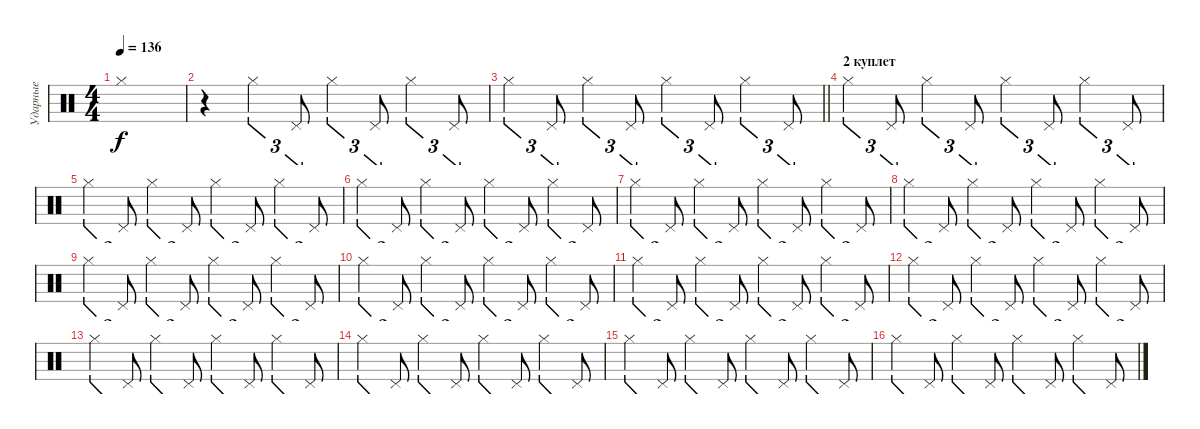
\track ("Ударные" "Ударные") {instrument percussion}
\staff {score}
\articulation defaults
\ts (4 4)
\tempo 136
\clef neutral
\ks c "Hi-Hat (closed)".1{dy f}
|
r.4 "Hi-Hat (closed)".4{tu (3 2)} "Pedal Hi-Hat (hit)".8{tu (3 2)} "Hi-Hat (closed)".4{tu (3 2)} "Pedal Hi-Hat (hit)".8{tu (3 2)} "Hi-Hat (closed)".4{tu (3 2)} "Pedal Hi-Hat (hit)".8{tu (3 2)} |
\barLineRight lightlight "Hi-Hat (closed)".4{tu (3 2)} "Pedal Hi-Hat (hit)".8{tu (3 2)} "Hi-Hat (closed)".4{tu (3 2)} "Pedal Hi-Hat (hit)".8{tu (3 2)} "Hi-Hat (closed)".4{tu (3 2)} "Pedal Hi-Hat (hit)".8{tu (3 2)} "Hi-Hat (closed)".4{tu (3 2)} "Pedal Hi-Hat (hit)".8{tu (3 2)}
|
\section ("" "2 куплет")
"Hi-Hat (closed)".4{tu (3 2)} "Pedal Hi-Hat (hit)".8{tu (3 2)} "Hi-Hat (closed)".4{tu (3 2)} "Pedal Hi-Hat (hit)".8{tu (3 2)} "Hi-Hat (closed)".4{tu (3 2)} "Pedal Hi-Hat (hit)".8{tu (3 2)} "Hi-Hat (closed)".4{tu (3 2)} "Pedal Hi-Hat (hit)".8{tu (3 2)} |
"Hi-Hat (closed)".4{tu (3 2)} "Pedal Hi-Hat (hit)".8{tu (3 2)} "Hi-Hat (closed)".4{tu (3 2)} "Pedal Hi-Hat (hit)".8{tu (3 2)} "Hi-Hat (closed)".4{tu (3 2)} "Pedal Hi-Hat (hit)".8{tu (3 2)} "Hi-Hat (closed)".4{tu (3 2)} "Pedal Hi-Hat (hit)".8{tu (3 2)} |
"Hi-Hat (closed)".4{tu (3 2)} "Pedal Hi-Hat (hit)".8{tu (3 2)} "Hi-Hat (closed)".4{tu (3 2)} "Pedal Hi-Hat (hit)".8{tu (3 2)} "Hi-Hat (closed)".4{tu (3 2)} "Pedal Hi-Hat (hit)".8{tu (3 2)} "Hi-Hat (closed)".4{tu (3 2)} "Pedal Hi-Hat (hit)".8{tu (3 2)} |
"Hi-Hat (closed)".4{tu (3 2)} "Pedal Hi-Hat (hit)".8{tu (3 2)} "Hi-Hat (closed)".4{tu (3 2)} "Pedal Hi-Hat (hit)".8{tu (3 2)} "Hi-Hat (closed)".4{tu (3 2)} "Pedal Hi-Hat (hit)".8{tu (3 2)} "Hi-Hat (closed)".4{tu (3 2)} "Pedal Hi-Hat (hit)".8{tu (3 2)} |
"Hi-Hat (closed)".4{tu (3 2)} "Pedal Hi-Hat (hit)".8{tu (3 2)} "Hi-Hat (closed)".4{tu (3 2)} "Pedal Hi-Hat (hit)".8{tu (3 2)} "Hi-Hat (closed)".4{tu (3 2)} "Pedal Hi-Hat (hit)".8{tu (3 2)} "Hi-Hat (closed)".4{tu (3 2)} "Pedal Hi-Hat (hit)".8{tu (3 2)} |
"Hi-Hat (closed)".4{tu (3 2)} "Pedal Hi-Hat (hit)".8{tu (3 2)} "Hi-Hat (closed)".4{tu (3 2)} "Pedal Hi-Hat (hit)".8{tu (3 2)} "Hi-Hat (closed)".4{tu (3 2)} "Pedal Hi-Hat (hit)".8{tu (3 2)} "Hi-Hat (closed)".4{tu (3 2)} "Pedal Hi-Hat (hit)".8{tu (3 2)} |
"Hi-Hat (closed)".4{tu (3 2)} "Pedal Hi-Hat (hit)".8{tu (3 2)} "Hi-Hat (closed)".4{tu (3 2)} "Pedal Hi-Hat (hit)".8{tu (3 2)} "Hi-Hat (closed)".4{tu (3 2)} "Pedal Hi-Hat (hit)".8{tu (3 2)} "Hi-Hat (closed)".4{tu (3 2)} "Pedal Hi-Hat (hit)".8{tu (3 2)} |
"Hi-Hat (closed)".4{tu (3 2)} "Pedal Hi-Hat (hit)".8{tu (3 2)} "Hi-Hat (closed)".4{tu (3 2)} "Pedal Hi-Hat (hit)".8{tu (3 2)} "Hi-Hat (closed)".4{tu (3 2)} "Pedal Hi-Hat (hit)".8{tu (3 2)} "Hi-Hat (closed)".4{tu (3 2)} "Pedal Hi-Hat (hit)".8{tu (3 2)} |
"Hi-Hat (closed)".4{tu (3 2)} "Pedal Hi-Hat (hit)".8{tu (3 2)} "Hi-Hat (closed)".4{tu (3 2)} "Pedal Hi-Hat (hit)".8{tu (3 2)} "Hi-Hat (closed)".4{tu (3 2)} "Pedal Hi-Hat (hit)".8{tu (3 2)} "Hi-Hat (closed)".4{tu (3 2)} "Pedal Hi-Hat (hit)".8{tu (3 2)} |
"Hi-Hat (closed)".4{tu (3 2)} "Pedal Hi-Hat (hit)".8{tu (3 2)} "Hi-Hat (closed)".4{tu (3 2)} "Pedal Hi-Hat (hit)".8{tu (3 2)} "Hi-Hat (closed)".4{tu (3 2)} "Pedal Hi-Hat (hit)".8{tu (3 2)} "Hi-Hat (closed)".4{tu (3 2)} "Pedal Hi-Hat (hit)".8{tu (3 2)} |
"Hi-Hat (closed)".4{tu (3 2)} "Pedal Hi-Hat (hit)".8{tu (3 2)} "Hi-Hat (closed)".4{tu (3 2)} "Pedal Hi-Hat (hit)".8{tu (3 2)} "Hi-Hat (closed)".4{tu (3 2)} "Pedal Hi-Hat (hit)".8{tu (3 2)} "Hi-Hat (closed)".4{tu (3 2)} "Pedal Hi-Hat (hit)".8{tu (3 2)} |
"Hi-Hat (closed)".4{tu (3 2)} "Pedal Hi-Hat (hit)".8{tu (3 2)} "Hi-Hat (closed)".4{tu (3 2)} "Pedal Hi-Hat (hit)".8{tu (3 2)} "Hi-Hat (closed)".4{tu (3 2)} "Pedal Hi-Hat (hit)".8{tu (3 2)} "Hi-Hat (closed)".4{tu (3 2)} "Pedal Hi-Hat (hit)".8{tu (3 2)} |
"Hi-Hat (closed)".4{tu (3 2)} "Pedal Hi-Hat (hit)".8{tu (3 2)} "Hi-Hat (closed)".4{tu (3 2)} "Pedal Hi-Hat (hit)".8{tu (3 2)} "Hi-Hat (closed)".4{tu (3 2)} "Pedal Hi-Hat (hit)".8{tu (3 2)} "Hi-Hat (closed)".4{tu (3 2)} "Pedal Hi-Hat (hit)".8{tu (3 2)}
